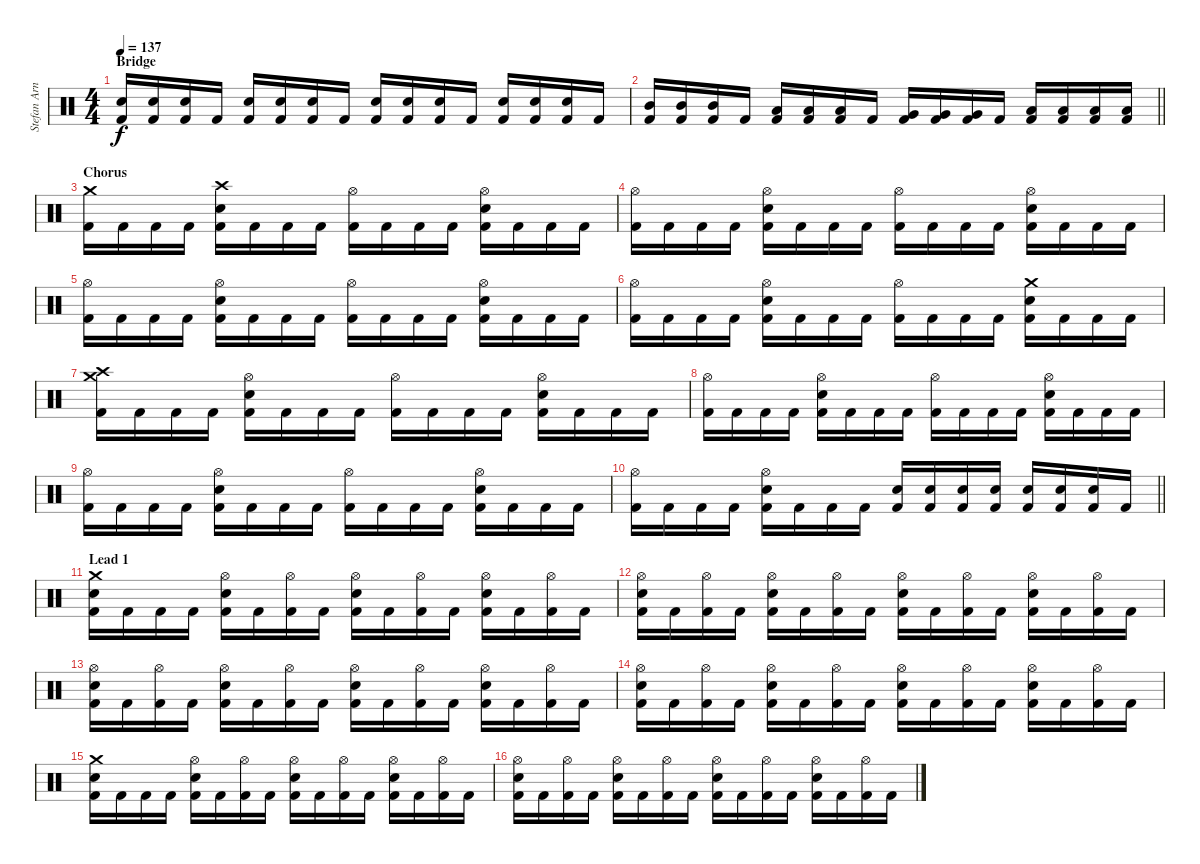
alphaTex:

\track ("Stefan Arnold" "Stefan Arn") {instrument percussion}
\staff {score}
\articulation defaults
\ts (4 4)
\section ("" "Bridge")
\tempo 137
\clef neutral
\ks c
("Electric Snare (hit)" "Kick (hit) 2").16{dy f} ("Electric Snare (hit)" "Kick (hit) 2").16 ("Electric Snare (hit)" "Kick (hit) 2").16 "Kick (hit) 2".16 ("Electric Snare (hit)" "Kick (hit) 2").16 ("Electric Snare (hit)" "Kick (hit) 2").16 ("Electric Snare (hit)" "Kick (hit) 2").16 "Kick (hit) 2".16 ("Electric Snare (hit)" "Kick (hit) 2").16 ("Electric Snare (hit)" "Kick (hit) 2").16 ("Electric Snare (hit)" "Kick (hit) 2").16 "Kick (hit) 2".16 ("Electric Snare (hit)" "Kick (hit) 2").16 ("Electric Snare (hit)" "Kick (hit) 2").16 ("Electric Snare (hit)" "Kick (hit) 2").16 "Kick (hit) 2".16 |
\barLineRight lightlight
("Mid Tom (hit)" "Kick (hit) 2").16 ("Mid Tom (hit)" "Kick (hit) 2").16 ("Mid Tom (hit)" "Kick (hit) 2").16 "Kick (hit) 2".16 ("Low Tom (hit)" "Kick (hit) 2").16 ("Low Tom (hit)" "Kick (hit) 2").16 ("Low Tom (hit)" "Kick (hit) 2").16 "Kick (hit) 2".16 ("Very Low Tom (hit)" "Kick (hit) 2").16 ("Very Low Tom (hit)" "Kick (hit) 2").16 ("Very Low Tom (hit)" "Kick (hit) 2").16 "Kick (hit) 2".16 ("Low Floor Tom (hit)" "Kick (hit) 2").16 ("Low Floor Tom (hit)" "Kick (hit) 2").16 ("Low Floor Tom (hit)" "Kick (hit) 2").16 ("Low Floor Tom (hit)" "Kick (hit) 2").16 |
\section ("" "Chorus")
("Crash medium (hit)" "Kick (hit) 2").16 "Kick (hit) 2".16 "Kick (hit) 2".16 "Kick (hit) 2".16 ("Crash high (hit)" "Electric Snare (hit)" "Kick (hit) 2").16 "Kick (hit) 2".16 "Kick (hit) 2".16 "Kick (hit) 2".16 ("Hi-Hat (open)" "Kick (hit) 2").16 "Kick (hit) 2".16 "Kick (hit) 2".16 "Kick (hit) 2".16 ("Hi-Hat (open)" "Electric Snare (hit)" "Kick (hit) 2").16 "Kick (hit) 2".16 "Kick (hit) 2".16 "Kick (hit) 2".16 |
("Hi-Hat (open)" "Kick (hit) 2").16 "Kick (hit) 2".16 "Kick (hit) 2".16 "Kick (hit) 2".16 ("Hi-Hat (open)" "Electric Snare (hit)" "Kick (hit) 2").16 "Kick (hit) 2".16 "Kick (hit) 2".16 "Kick (hit) 2".16 ("Hi-Hat (open)" "Kick (hit) 2").16 "Kick (hit) 2".16 "Kick (hit) 2".16 "Kick (hit) 2".16 ("Hi-Hat (open)" "Electric Snare (hit)" "Kick (hit) 2").16 "Kick (hit) 2".16 "Kick (hit) 2".16 "Kick (hit) 2".16 |
("Hi-Hat (open)" "Kick (hit) 2").16 "Kick (hit) 2".16 "Kick (hit) 2".16 "Kick (hit) 2".16 ("Hi-Hat (open)" "Electric Snare (hit)" "Kick (hit) 2").16 "Kick (hit) 2".16 "Kick (hit) 2".16 "Kick (hit) 2".16 ("Hi-Hat (open)" "Kick (hit) 2").16 "Kick (hit) 2".16 "Kick (hit) 2".16 "Kick (hit) 2".16 ("Hi-Hat (open)" "Electric Snare (hit)" "Kick (hit) 2").16 "Kick (hit) 2".16 "Kick (hit) 2".16 "Kick (hit) 2".16 |
("Hi-Hat (open)" "Kick (hit) 2").16 "Kick (hit) 2".16 "Kick (hit) 2".16 "Kick (hit) 2".16 ("Hi-Hat (open)" "Electric Snare (hit)" "Kick (hit) 2").16 "Kick (hit) 2".16 "Kick (hit) 2".16 "Kick (hit) 2".16 ("Hi-Hat (open)" "Kick (hit) 2").16 "Kick (hit) 2".16 "Kick (hit) 2".16 "Kick (hit) 2".16 ("Crash medium (hit)" "Electric Snare (hit)" "Kick (hit) 2").16 "Kick (hit) 2".16 "Kick (hit) 2".16 "Kick (hit) 2".16 |
("Crash medium (hit)" "Crash high (hit)" "Kick (hit) 2").16 "Kick (hit) 2".16 "Kick (hit) 2".16 "Kick (hit) 2".16 ("Hi-Hat (open)" "Electric Snare (hit)" "Kick (hit) 2").16 "Kick (hit) 2".16 "Kick (hit) 2".16 "Kick (hit) 2".16 ("Hi-Hat (open)" "Kick (hit) 2").16 "Kick (hit) 2".16 "Kick (hit) 2".16 "Kick (hit) 2".16 ("Hi-Hat (open)" "Electric Snare (hit)" "Kick (hit) 2").16 "Kick (hit) 2".16 "Kick (hit) 2".16 "Kick (hit) 2".16 |
("Hi-Hat (open)" "Kick (hit) 2").16 "Kick (hit) 2".16 "Kick (hit) 2".16 "Kick (hit) 2".16 ("Hi-Hat (open)" "Electric Snare (hit)" "Kick (hit) 2").16 "Kick (hit) 2".16 "Kick (hit) 2".16 "Kick (hit) 2".16 ("Hi-Hat (open)" "Kick (hit) 2").16 "Kick (hit) 2".16 "Kick (hit) 2".16 "Kick (hit) 2".16 ("Hi-Hat (open)" "Electric Snare (hit)" "Kick (hit) 2").16 "Kick (hit) 2".16 "Kick (hit) 2".16 "Kick (hit) 2".16 |
("Hi-Hat (open)" "Kick (hit) 2").16 "Kick (hit) 2".16 "Kick (hit) 2".16 "Kick (hit) 2".16 ("Hi-Hat (open)" "Electric Snare (hit)" "Kick (hit) 2").16 "Kick (hit) 2".16 "Kick (hit) 2".16 "Kick (hit) 2".16 ("Hi-Hat (open)" "Kick (hit) 2").16 "Kick (hit) 2".16 "Kick (hit) 2".16 "Kick (hit) 2".16 ("Hi-Hat (open)" "Electric Snare (hit)" "Kick (hit) 2").16 "Kick (hit) 2".16 "Kick (hit) 2".16 "Kick (hit) 2".16 |
\barLineRight lightlight
("Hi-Hat (open)" "Kick (hit) 2").16 "Kick (hit) 2".16 "Kick (hit) 2".16 "Kick (hit) 2".16 ("Hi-Hat (open)" "Electric Snare (hit)" "Kick (hit) 2").16 "Kick (hit) 2".16 "Kick (hit) 2".16 "Kick (hit) 2".16 ("Electric Snare (hit)" "Kick (hit) 2").16 ("Electric Snare (hit)" "Kick (hit) 2").16 ("Electric Snare (hit)" "Kick (hit) 2").16 ("Electric Snare (hit)" "Kick (hit) 2").16 ("Electric Snare (hit)" "Kick (hit) 2").16 ("Electric Snare (hit)" "Kick (hit) 2").16 ("Electric Snare (hit)" "Kick (hit) 2").16 "Kick (hit) 2".16 |
\section ("" "Lead 1")
("Crash medium (hit)" "Electric Snare (hit)" "Kick (hit) 2").16 "Kick (hit) 2".16 "Kick (hit) 2".16 "Kick (hit) 2".16 ("Hi-Hat (open)" "Electric Snare (hit)" "Kick (hit) 2").16 "Kick (hit) 2".16 ("Hi-Hat (open)" "Kick (hit) 2").16 "Kick (hit) 2".16 ("Hi-Hat (open)" "Electric Snare (hit)" "Kick (hit) 2").16 "Kick (hit) 2".16 ("Hi-Hat (open)" "Kick (hit) 2").16 "Kick (hit) 2".16 ("Hi-Hat (open)" "Electric Snare (hit)" "Kick (hit) 2").16 "Kick (hit) 2".16 ("Hi-Hat (open)" "Kick (hit) 2").16 "Kick (hit) 2".16 |
("Hi-Hat (open)" "Electric Snare (hit)" "Kick (hit) 2").16 "Kick (hit) 2".16 ("Hi-Hat (open)" "Kick (hit) 2").16 "Kick (hit) 2".16 ("Hi-Hat (open)" "Electric Snare (hit)" "Kick (hit) 2").16 "Kick (hit) 2".16 ("Hi-Hat (open)" "Kick (hit) 2").16 "Kick (hit) 2".16 ("Hi-Hat (open)" "Electric Snare (hit)" "Kick (hit) 2").16 "Kick (hit) 2".16 ("Hi-Hat (open)" "Kick (hit) 2").16 "Kick (hit) 2".16 ("Hi-Hat (open)" "Electric Snare (hit)" "Kick (hit) 2").16 "Kick (hit) 2".16 ("Hi-Hat (open)" "Kick (hit) 2").16 "Kick (hit) 2".16 |
("Hi-Hat (open)" "Electric Snare (hit)" "Kick (hit) 2").16 "Kick (hit) 2".16 ("Hi-Hat (open)" "Kick (hit) 2").16 "Kick (hit) 2".16 ("Hi-Hat (open)" "Electric Snare (hit)" "Kick (hit) 2").16 "Kick (hit) 2".16 ("Hi-Hat (open)" "Kick (hit) 2").16 "Kick (hit) 2".16 ("Hi-Hat (open)" "Electric Snare (hit)" "Kick (hit) 2").16 "Kick (hit) 2".16 ("Hi-Hat (open)" "Kick (hit) 2").16 "Kick (hit) 2".16 ("Hi-Hat (open)" "Electric Snare (hit)" "Kick (hit) 2").16 "Kick (hit) 2".16 ("Hi-Hat (open)" "Kick (hit) 2").16 "Kick (hit) 2".16 |
("Hi-Hat (open)" "Electric Snare (hit)" "Kick (hit) 2").16 "Kick (hit) 2".16 ("Hi-Hat (open)" "Kick (hit) 2").16 "Kick (hit) 2".16 ("Hi-Hat (open)" "Electric Snare (hit)" "Kick (hit) 2").16 "Kick (hit) 2".16 ("Hi-Hat (open)" "Kick (hit) 2").16 "Kick (hit) 2".16 ("Hi-Hat (open)" "Electric Snare (hit)" "Kick (hit) 2").16 "Kick (hit) 2".16 ("Hi-Hat (open)" "Kick (hit) 2").16 "Kick (hit) 2".16 ("Hi-Hat (open)" "Electric Snare (hit)" "Kick (hit) 2").16 "Kick (hit) 2".16 ("Hi-Hat (open)" "Kick (hit) 2").16 "Kick (hit) 2".16 |
("Crash medium (hit)" "Electric Snare (hit)" "Kick (hit) 2").16 "Kick (hit) 2".16 "Kick (hit) 2".16 "Kick (hit) 2".16 ("Hi-Hat (open)" "Electric Snare (hit)" "Kick (hit) 2").16 "Kick (hit) 2".16 ("Hi-Hat (open)" "Kick (hit) 2").16 "Kick (hit) 2".16 ("Hi-Hat (open)" "Electric Snare (hit)" "Kick (hit) 2").16 "Kick (hit) 2".16 ("Hi-Hat (open)" "Kick (hit) 2").16 "Kick (hit) 2".16 ("Hi-Hat (open)" "Electric Snare (hit)" "Kick (hit) 2").16 "Kick (hit) 2".16 ("Hi-Hat (open)" "Kick (hit) 2").16 "Kick (hit) 2".16 |
("Hi-Hat (open)" "Electric Snare (hit)" "Kick (hit) 2").16 "Kick (hit) 2".16 ("Hi-Hat (open)" "Kick (hit) 2").16 "Kick (hit) 2".16 ("Hi-Hat (open)" "Electric Snare (hit)" "Kick (hit) 2").16 "Kick (hit) 2".16 ("Hi-Hat (open)" "Kick (hit) 2").16 "Kick (hit) 2".16 ("Hi-Hat (open)" "Electric Snare (hit)" "Kick (hit) 2").16 "Kick (hit) 2".16 ("Hi-Hat (open)" "Kick (hit) 2").16 "Kick (hit) 2".16 ("Hi-Hat (open)" "Electric Snare (hit)" "Kick (hit) 2").16 "Kick (hit) 2".16 ("Hi-Hat (open)" "Kick (hit) 2").16 "Kick (hit) 2".16
